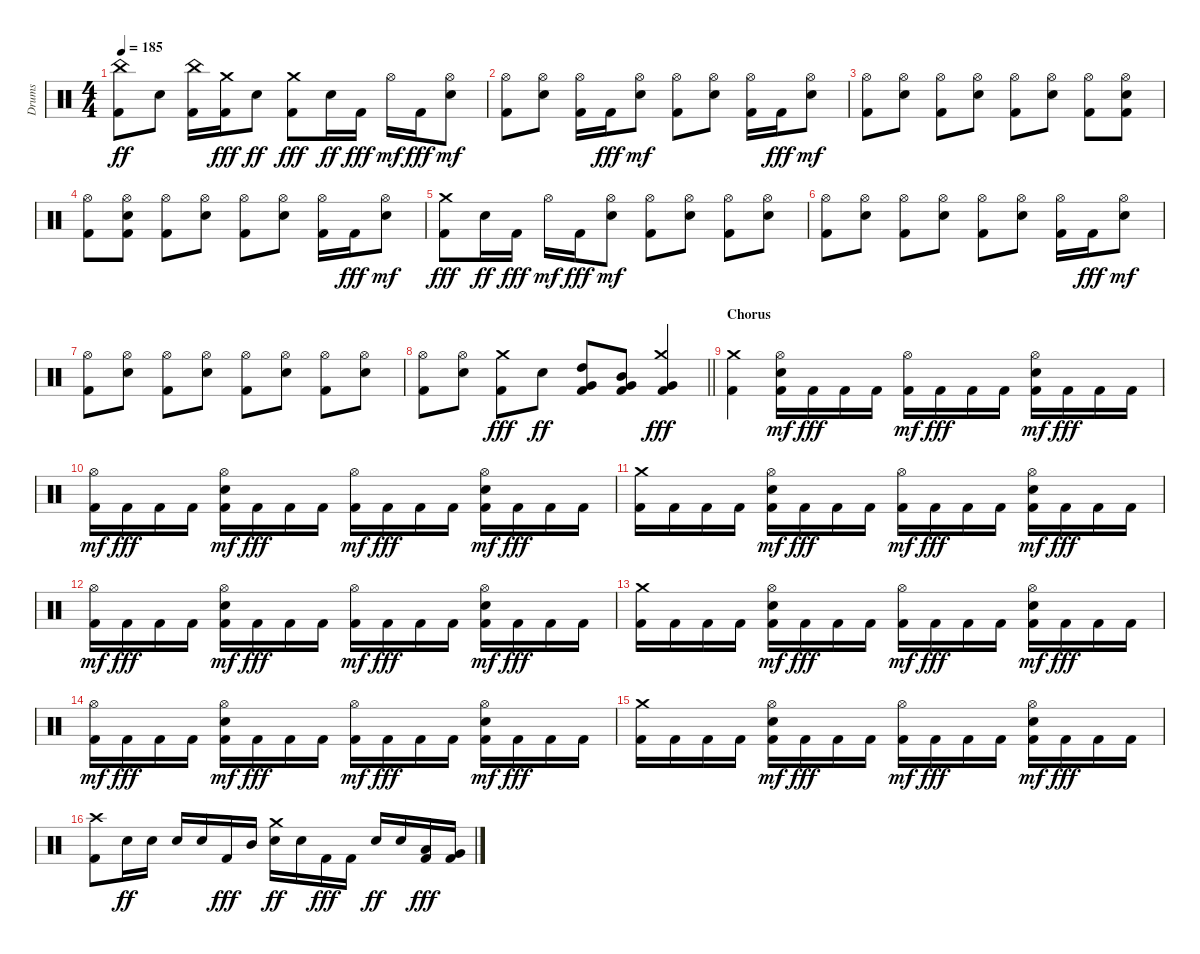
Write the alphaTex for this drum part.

\track ("Drums" "Drums") {instrument percussion}
\staff {score}
\articulation defaults
\ts (4 4)
\tempo 185
\clef neutral
\ks c
("Kick (hit) 2" "China (hit)").8{dy ff} "Snare (hit) 2".8 ("Kick (hit) 2" "China (hit)").16 ("Kick (hit) 2" "Crash medium (hit)").16{dy fff} "Snare (hit) 2".8{dy ff} ("Kick (hit) 2" "Crash medium (hit)").8{dy fff} "Snare (hit) 2".16{dy ff} "Kick (hit) 2".16{dy fff} "Hi-Hat (open)".16{dy mf} "Kick (hit) 2".16{dy fff} ("Snare (hit) 2" "Hi-Hat (open)").8{dy mf} |
("Kick (hit) 2" "Hi-Hat (open)").8 ("Snare (hit) 2" "Hi-Hat (open)").8 ("Kick (hit) 2" "Hi-Hat (open)").16 "Kick (hit) 2".16{dy fff} ("Snare (hit) 2" "Hi-Hat (open)").8{dy mf} ("Kick (hit) 2" "Hi-Hat (open)").8 ("Snare (hit) 2" "Hi-Hat (open)").8 ("Kick (hit) 2" "Hi-Hat (open)").16 "Kick (hit) 2".16{dy fff} ("Snare (hit) 2" "Hi-Hat (open)").8{dy mf} |
("Kick (hit) 2" "Hi-Hat (open)").8 ("Snare (hit) 2" "Hi-Hat (open)").8 ("Kick (hit) 2" "Hi-Hat (open)").8 ("Snare (hit) 2" "Hi-Hat (open)").8 ("Kick (hit) 2" "Hi-Hat (open)").8 ("Snare (hit) 2" "Hi-Hat (open)").8 ("Kick (hit) 2" "Hi-Hat (open)").8 ("Kick (hit) 2" "Snare (hit) 2" "Hi-Hat (open)").8 |
("Kick (hit) 2" "Hi-Hat (open)").8 ("Kick (hit) 2" "Snare (hit) 2" "Hi-Hat (open)").8 ("Kick (hit) 2" "Hi-Hat (open)").8 ("Snare (hit) 2" "Hi-Hat (open)").8 ("Kick (hit) 2" "Hi-Hat (open)").8 ("Snare (hit) 2" "Hi-Hat (open)").8 ("Kick (hit) 2" "Hi-Hat (open)").16 "Kick (hit) 2".16{dy fff} ("Snare (hit) 2" "Hi-Hat (open)").8{dy mf} |
("Kick (hit) 2" "Crash medium (hit)").8{dy fff} "Snare (hit) 2".16{dy ff} "Kick (hit) 2".16{dy fff} "Hi-Hat (open)".16{dy mf} "Kick (hit) 2".16{dy fff} ("Snare (hit) 2" "Hi-Hat (open)").8{dy mf} ("Kick (hit) 2" "Hi-Hat (open)").8 ("Snare (hit) 2" "Hi-Hat (open)").8 ("Kick (hit) 2" "Hi-Hat (open)").8 ("Snare (hit) 2" "Hi-Hat (open)").8 |
("Kick (hit) 2" "Hi-Hat (open)").8 ("Snare (hit) 2" "Hi-Hat (open)").8 ("Kick (hit) 2" "Hi-Hat (open)").8 ("Snare (hit) 2" "Hi-Hat (open)").8 ("Kick (hit) 2" "Hi-Hat (open)").8 ("Snare (hit) 2" "Hi-Hat (open)").8 ("Kick (hit) 2" "Hi-Hat (open)").16 "Kick (hit) 2".16{dy fff} ("Snare (hit) 2" "Hi-Hat (open)").8{dy mf} |
("Kick (hit) 2" "Hi-Hat (open)").8 ("Snare (hit) 2" "Hi-Hat (open)").8 ("Kick (hit) 2" "Hi-Hat (open)").8 ("Snare (hit) 2" "Hi-Hat (open)").8 ("Kick (hit) 2" "Hi-Hat (open)").8 ("Snare (hit) 2" "Hi-Hat (open)").8 ("Kick (hit) 2" "Hi-Hat (open)").8 ("Snare (hit) 2" "Hi-Hat (open)").8 |
\barLineRight lightlight
("Kick (hit) 2" "Hi-Hat (open)").8 ("Snare (hit) 2" "Hi-Hat (open)").8 ("Kick (hit) 2" "Crash medium (hit)").8{dy fff} "Snare (hit) 2".8{dy ff} ("Kick (hit) 2" "High Tom (hit)" "Very Low Tom (hit)").8 ("Kick (hit) 2" "Mid Tom (hit)" "Very Low Tom (hit)").8 ("Kick (hit) 2" "Very Low Tom (hit)" "Crash medium (hit)").4{dy fff} |
\section ("" "Chorus")
("Kick (hit) 2" "Crash medium (hit)").4 ("Kick (hit) 2" "Snare (hit) 2" "Hi-Hat (open)").16{dy mf} "Kick (hit) 2".16{dy fff} "Kick (hit) 2".16 "Kick (hit) 2".16 ("Kick (hit) 2" "Hi-Hat (open)").16{dy mf} "Kick (hit) 2".16{dy fff} "Kick (hit) 2".16 "Kick (hit) 2".16 ("Kick (hit) 2" "Snare (hit) 2" "Hi-Hat (open)").16{dy mf} "Kick (hit) 2".16{dy fff} "Kick (hit) 2".16 "Kick (hit) 2".16 |
("Kick (hit) 2" "Hi-Hat (open)").16{dy mf} "Kick (hit) 2".16{dy fff} "Kick (hit) 2".16 "Kick (hit) 2".16 ("Kick (hit) 2" "Snare (hit) 2" "Hi-Hat (open)").16{dy mf} "Kick (hit) 2".16{dy fff} "Kick (hit) 2".16 "Kick (hit) 2".16 ("Kick (hit) 2" "Hi-Hat (open)").16{dy mf} "Kick (hit) 2".16{dy fff} "Kick (hit) 2".16 "Kick (hit) 2".16 ("Kick (hit) 2" "Snare (hit) 2" "Hi-Hat (open)").16{dy mf} "Kick (hit) 2".16{dy fff} "Kick (hit) 2".16 "Kick (hit) 2".16 |
("Kick (hit) 2" "Crash medium (hit)").16 "Kick (hit) 2".16 "Kick (hit) 2".16 "Kick (hit) 2".16 ("Kick (hit) 2" "Snare (hit) 2" "Hi-Hat (open)").16{dy mf} "Kick (hit) 2".16{dy fff} "Kick (hit) 2".16 "Kick (hit) 2".16 ("Kick (hit) 2" "Hi-Hat (open)").16{dy mf} "Kick (hit) 2".16{dy fff} "Kick (hit) 2".16 "Kick (hit) 2".16 ("Kick (hit) 2" "Snare (hit) 2" "Hi-Hat (open)").16{dy mf} "Kick (hit) 2".16{dy fff} "Kick (hit) 2".16 "Kick (hit) 2".16 |
("Kick (hit) 2" "Hi-Hat (open)").16{dy mf} "Kick (hit) 2".16{dy fff} "Kick (hit) 2".16 "Kick (hit) 2".16 ("Kick (hit) 2" "Snare (hit) 2" "Hi-Hat (open)").16{dy mf} "Kick (hit) 2".16{dy fff} "Kick (hit) 2".16 "Kick (hit) 2".16 ("Kick (hit) 2" "Hi-Hat (open)").16{dy mf} "Kick (hit) 2".16{dy fff} "Kick (hit) 2".16 "Kick (hit) 2".16 ("Kick (hit) 2" "Snare (hit) 2" "Hi-Hat (open)").16{dy mf} "Kick (hit) 2".16{dy fff} "Kick (hit) 2".16 "Kick (hit) 2".16 |
("Kick (hit) 2" "Crash medium (hit)").16 "Kick (hit) 2".16 "Kick (hit) 2".16 "Kick (hit) 2".16 ("Kick (hit) 2" "Snare (hit) 2" "Hi-Hat (open)").16{dy mf} "Kick (hit) 2".16{dy fff} "Kick (hit) 2".16 "Kick (hit) 2".16 ("Kick (hit) 2" "Hi-Hat (open)").16{dy mf} "Kick (hit) 2".16{dy fff} "Kick (hit) 2".16 "Kick (hit) 2".16 ("Kick (hit) 2" "Snare (hit) 2" "Hi-Hat (open)").16{dy mf} "Kick (hit) 2".16{dy fff} "Kick (hit) 2".16 "Kick (hit) 2".16 |
("Kick (hit) 2" "Hi-Hat (open)").16{dy mf} "Kick (hit) 2".16{dy fff} "Kick (hit) 2".16 "Kick (hit) 2".16 ("Kick (hit) 2" "Snare (hit) 2" "Hi-Hat (open)").16{dy mf} "Kick (hit) 2".16{dy fff} "Kick (hit) 2".16 "Kick (hit) 2".16 ("Kick (hit) 2" "Hi-Hat (open)").16{dy mf} "Kick (hit) 2".16{dy fff} "Kick (hit) 2".16 "Kick (hit) 2".16 ("Kick (hit) 2" "Snare (hit) 2" "Hi-Hat (open)").16{dy mf} "Kick (hit) 2".16{dy fff} "Kick (hit) 2".16 "Kick (hit) 2".16 |
("Kick (hit) 2" "Crash medium (hit)").16 "Kick (hit) 2".16 "Kick (hit) 2".16 "Kick (hit) 2".16 ("Kick (hit) 2" "Snare (hit) 2" "Hi-Hat (open)").16{dy mf} "Kick (hit) 2".16{dy fff} "Kick (hit) 2".16 "Kick (hit) 2".16 ("Kick (hit) 2" "Hi-Hat (open)").16{dy mf} "Kick (hit) 2".16{dy fff} "Kick (hit) 2".16 "Kick (hit) 2".16 ("Kick (hit) 2" "Snare (hit) 2" "Hi-Hat (open)").16{dy mf} "Kick (hit) 2".16{dy fff} "Kick (hit) 2".16 "Kick (hit) 2".16 |
("Kick (hit) 2" "Crash high (hit)").8 "Snare (hit) 2".16{dy ff} "Snare (hit) 2".16 "Snare (hit) 2".16 "Snare (hit) 2".16 "Kick (hit) 2".16{dy fff} "Mid Tom (hit)".16 ("Snare (hit) 2" "Crash medium (hit)").16{dy ff} "Snare (hit) 2".16 "Kick (hit) 2".16{dy fff} "Kick (hit) 2".16 "Snare (hit) 2".16{dy ff} "Snare (hit) 2".16 ("Kick (hit) 2" "Low Tom (hit)").16{dy fff} ("Kick (hit) 2" "Very Low Tom (hit)").16
